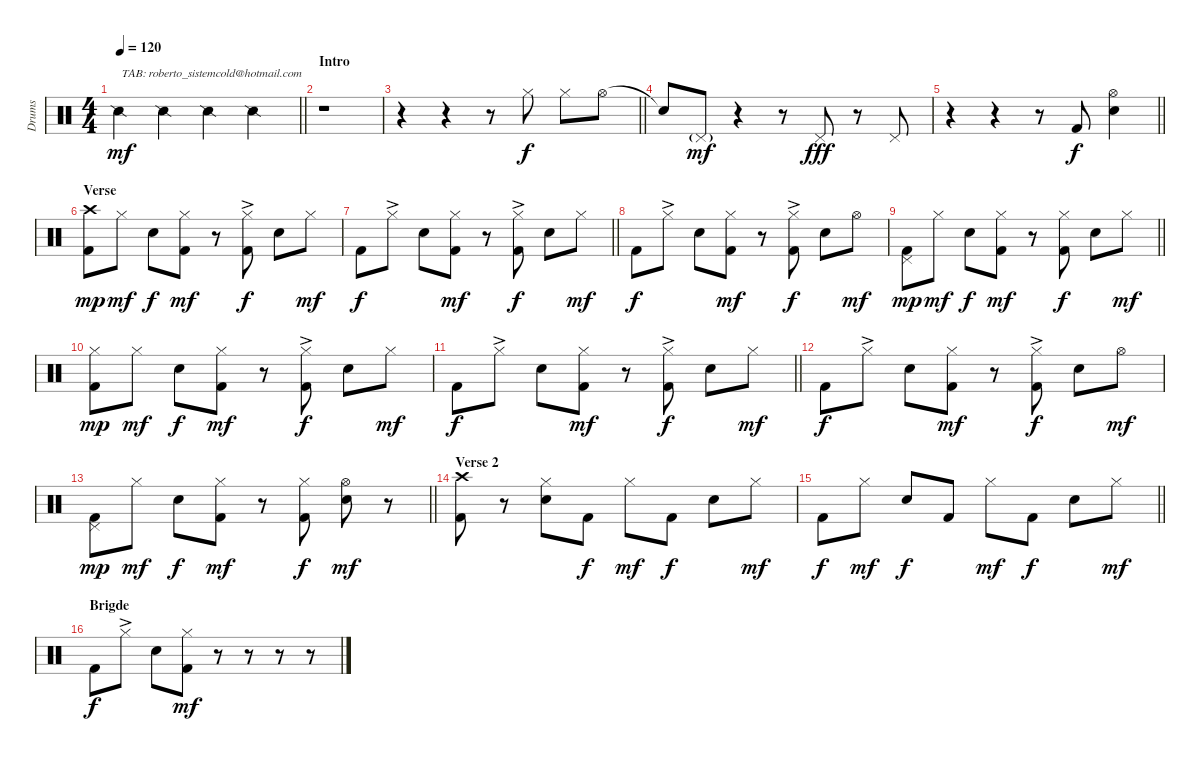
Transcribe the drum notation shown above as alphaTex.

\track ("Drums" "Drums") {instrument percussion}
\staff {score}
\articulation defaults
\ts (4 4)
\tempo 120
\clef neutral
\barLineRight lightlight
\ks c "Snare (side stick) 2".4{txt "TAB: roberto_sistemcold@hotmail.com" dy mf} "Snare (side stick) 2".4 "Snare (side stick) 2".4 "Snare (side stick) 2".4
|
\section ("" "Intro")
r.1 |
\barLineRight lightlight
r.4 r.4 r.8 "Hi-Hat (closed)".8{dy f} "Hi-Hat (closed)".8 "Hi-Hat (open)".8 |
"Snare (hit)"{t}.8 "Pedal Hi-Hat (hit)"{g}.8{dy mf} r.4 r.8 "Pedal Hi-Hat (hit)".8{dy fff} r.8 "Pedal Hi-Hat (hit)".8 |
\barLineRight lightlight
r.4 r.4 r.8 "Kick (hit) 2".8{dy f} ("Hi-Hat (open)" "Snare (hit) 2").4 |
\section ("" "Verse")
("Crash high (hit)" "Kick (hit) 2").8{dy mp} "Hi-Hat (closed)".8{dy mf} "Snare (hit) 2".8{dy f} ("Hi-Hat (closed)" "Kick (hit) 2").8{dy mf} r.8 ("Hi-Hat (closed)"{ac} "Kick (hit) 2").8{dy f} "Snare (hit) 2".8 "Hi-Hat (closed)".8{dy mf} |
\barLineRight lightlight "Kick (hit) 2".8{dy f} "Hi-Hat (closed)"{ac}.8 "Snare (hit) 2".8
("Hi-Hat (closed)" "Kick (hit) 2").8{dy mf} r.8 ("Hi-Hat (closed)"{ac} "Kick (hit) 2").8{dy f} "Snare (hit) 2".8 "Hi-Hat (closed)".8{dy mf} |
"Kick (hit) 2".8{dy f} "Hi-Hat (closed)"{ac}.8 "Snare (hit) 2".8 ("Hi-Hat (closed)" "Kick (hit) 2").8{dy mf} r.8 ("Hi-Hat (closed)"{ac} "Kick (hit) 2").8{dy f} "Snare (hit) 2".8 "Hi-Hat (open)".8{dy mf} |
\barLineRight lightlight
("Pedal Hi-Hat (hit)" "Kick (hit) 2").8{dy mp} "Hi-Hat (closed)".8{dy mf} "Snare (hit) 2".8{dy f} ("Hi-Hat (closed)" "Kick (hit) 2").8{dy mf} r.8 ("Hi-Hat (closed)" "Kick (hit) 2").8{dy f} "Snare (hit) 2".8 "Hi-Hat (closed)".8{dy mf} |
("Hi-Hat (closed)" "Kick (hit) 2").8{dy mp} "Hi-Hat (closed)".8{dy mf} "Snare (hit) 2".8{dy f} ("Hi-Hat (closed)" "Kick (hit) 2").8{dy mf} r.8 ("Hi-Hat (closed)"{ac} "Kick (hit) 2").8{dy f} "Snare (hit) 2".8 "Hi-Hat (closed)".8{dy mf} |
\barLineRight lightlight "Kick (hit) 2".8{dy f} "Hi-Hat (closed)"{ac}.8 "Snare (hit) 2".8
("Hi-Hat (closed)" "Kick (hit) 2").8{dy mf} r.8 ("Hi-Hat (closed)"{ac} "Kick (hit) 2").8{dy f} "Snare (hit) 2".8 "Hi-Hat (closed)".8{dy mf} |
"Kick (hit) 2".8{dy f} "Hi-Hat (closed)"{ac}.8 "Snare (hit) 2".8 ("Hi-Hat (closed)" "Kick (hit) 2").8{dy mf} r.8 ("Hi-Hat (closed)"{ac} "Kick (hit) 2").8{dy f} "Snare (hit) 2".8 "Hi-Hat (open)".8{dy mf} |
\barLineRight lightlight
("Pedal Hi-Hat (hit)" "Kick (hit) 2").8{dy mp} "Hi-Hat (closed)".8{dy mf} "Snare (hit) 2".8{dy f} ("Hi-Hat (closed)" "Kick (hit) 2").8{dy mf} r.8 ("Hi-Hat (closed)" "Kick (hit) 2").8{dy f} ("Hi-Hat (open)" "Snare (hit) 2").8{dy mf} r.8 |
\section ("" "Verse 2")
("Crash high (hit)" "Kick (hit) 2").8 r.8 ("Hi-Hat (closed)" "Snare (hit) 2").8 "Kick (hit) 2".8{dy f} "Hi-Hat (closed)".8{dy mf} "Kick (hit) 2".8{dy f} "Snare (hit) 2".8 "Hi-Hat (closed)".8{dy mf} |
\barLineRight lightlight "Kick (hit) 2".8{dy f} "Hi-Hat (closed)".8{dy mf} "Snare (hit) 2".8{dy f} "Kick (hit) 2".8 "Hi-Hat (closed)".8{dy mf} "Kick (hit) 2".8{dy f} "Snare (hit) 2".8 "Hi-Hat (closed)".8{dy mf}
|
\section ("" "Brigde")
"Kick (hit) 2".8{dy f} "Hi-Hat (closed)"{ac}.8 "Snare (hit) 2".8 ("Hi-Hat (closed)" "Kick (hit) 2").8{dy mf} r.8 r.8 r.8 r.8
